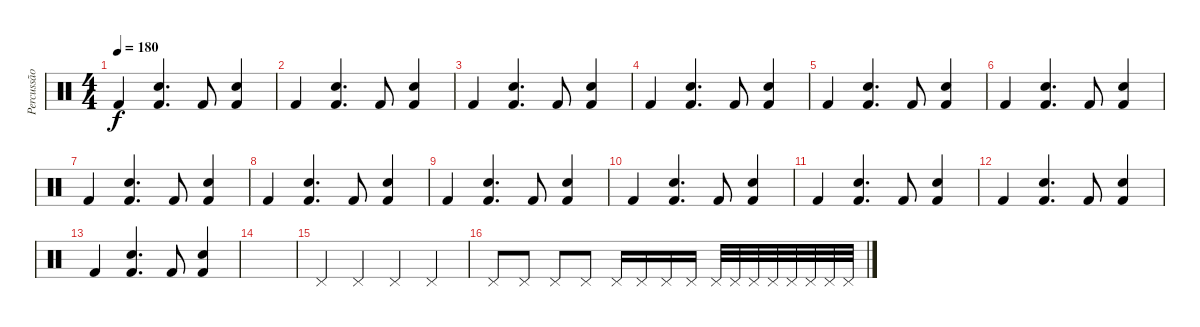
\track ("Percussão" "Percussão") {instrument percussion}
\staff {score}
\articulation defaults
\ts (4 4)
\tempo 180
\clef neutral
\ks c "Kick (hit) 2".4{dy f}
("Kick (hit) 2" "Snare (hit) 2").4{d} "Kick (hit) 2".8 ("Kick (hit) 2" "Snare (hit) 2").4 |
"Kick (hit) 2".4 ("Kick (hit) 2" "Snare (hit) 2").4{d} "Kick (hit) 2".8 ("Kick (hit) 2" "Snare (hit) 2").4 |
"Kick (hit) 2".4 ("Kick (hit) 2" "Snare (hit) 2").4{d} "Kick (hit) 2".8 ("Kick (hit) 2" "Snare (hit) 2").4 |
"Kick (hit) 2".4 ("Kick (hit) 2" "Snare (hit) 2").4{d} "Kick (hit) 2".8 ("Kick (hit) 2" "Snare (hit) 2").4 |
"Kick (hit) 2".4 ("Kick (hit) 2" "Snare (hit) 2").4{d} "Kick (hit) 2".8 ("Kick (hit) 2" "Snare (hit) 2").4 |
"Kick (hit) 2".4 ("Kick (hit) 2" "Snare (hit) 2").4{d} "Kick (hit) 2".8 ("Kick (hit) 2" "Snare (hit) 2").4 |
"Kick (hit) 2".4 ("Kick (hit) 2" "Snare (hit) 2").4{d} "Kick (hit) 2".8 ("Kick (hit) 2" "Snare (hit) 2").4 |
"Kick (hit) 2".4 ("Kick (hit) 2" "Snare (hit) 2").4{d} "Kick (hit) 2".8 ("Kick (hit) 2" "Snare (hit) 2").4 |
"Kick (hit) 2".4 ("Kick (hit) 2" "Snare (hit) 2").4{d} "Kick (hit) 2".8 ("Kick (hit) 2" "Snare (hit) 2").4 |
"Kick (hit) 2".4 ("Kick (hit) 2" "Snare (hit) 2").4{d} "Kick (hit) 2".8 ("Kick (hit) 2" "Snare (hit) 2").4 |
"Kick (hit) 2".4 ("Kick (hit) 2" "Snare (hit) 2").4{d} "Kick (hit) 2".8 ("Kick (hit) 2" "Snare (hit) 2").4 |
"Kick (hit) 2".4 ("Kick (hit) 2" "Snare (hit) 2").4{d} "Kick (hit) 2".8 ("Kick (hit) 2" "Snare (hit) 2").4 |
"Kick (hit) 2".4 ("Kick (hit) 2" "Snare (hit) 2").4{d} "Kick (hit) 2".8 ("Kick (hit) 2" "Snare (hit) 2").4 |
|
"Pedal Hi-Hat (hit)".4 "Pedal Hi-Hat (hit)".4 "Pedal Hi-Hat (hit)".4 "Pedal Hi-Hat (hit)".4 |
"Pedal Hi-Hat (hit)".8 "Pedal Hi-Hat (hit)".8 "Pedal Hi-Hat (hit)".8 "Pedal Hi-Hat (hit)".8 "Pedal Hi-Hat (hit)".16 "Pedal Hi-Hat (hit)".16 "Pedal Hi-Hat (hit)".16 "Pedal Hi-Hat (hit)".16 "Pedal Hi-Hat (hit)".32 "Pedal Hi-Hat (hit)".32 "Pedal Hi-Hat (hit)".32 "Pedal Hi-Hat (hit)".32 "Pedal Hi-Hat (hit)".32 "Pedal Hi-Hat (hit)".32 "Pedal Hi-Hat (hit)".32 "Pedal Hi-Hat (hit)".32
